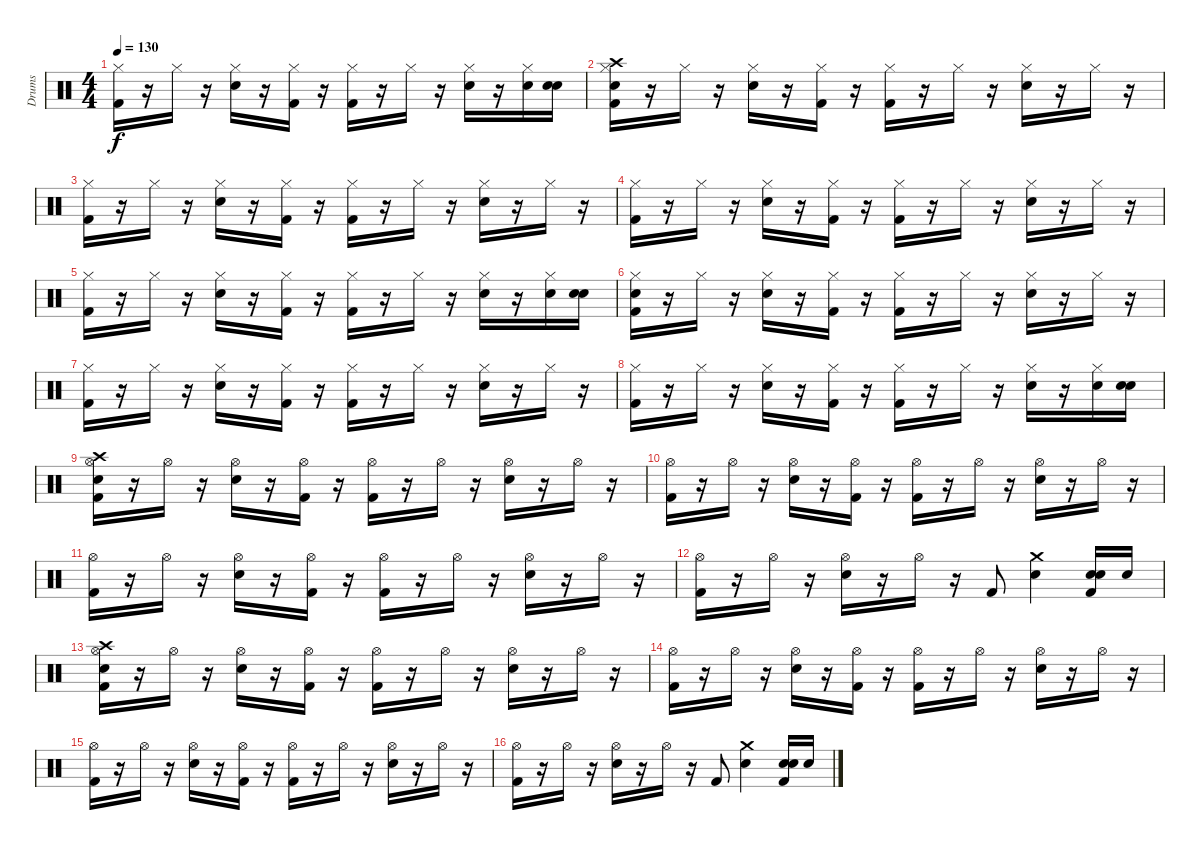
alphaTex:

\track ("Drums" "Drums") {instrument percussion}
\staff {score}
\articulation defaults
\ts (4 4)
\tempo 130
\clef neutral
\ks c
("Kick (hit) 2" "Hi-Hat (closed)").16{dy f} r.16 "Hi-Hat (closed)".16 r.16 ("Snare (hit) 2" "Hi-Hat (closed)").16 r.16 ("Kick (hit) 2" "Hi-Hat (closed)").16 r.16 ("Hi-Hat (closed)" "Kick (hit) 2").16 r.16 "Hi-Hat (closed)".16 r.16 ("Hi-Hat (closed)" "Snare (hit) 2").16 r.16 ("Snare (hit) 2" "Hi-Hat (closed)").16 ("Snare (hit)" "Snare (hit) 2").16 |
("Snare (hit)" "Crash high (hit)" "Kick (hit) 2" "Hi-Hat (closed)").16 r.16 "Hi-Hat (closed)".16 r.16 ("Hi-Hat (closed)" "Snare (hit) 2").16 r.16 ("Hi-Hat (closed)" "Kick (hit) 2").16 r.16 ("Hi-Hat (closed)" "Kick (hit) 2").16 r.16 "Hi-Hat (closed)".16 r.16 ("Hi-Hat (closed)" "Snare (hit) 2").16 r.16 "Hi-Hat (closed)".16 r.16 |
("Hi-Hat (closed)" "Kick (hit) 2").16 r.16 "Hi-Hat (closed)".16 r.16 ("Snare (hit) 2" "Hi-Hat (closed)").16 r.16 ("Hi-Hat (closed)" "Kick (hit) 2").16 r.16 ("Hi-Hat (closed)" "Kick (hit) 2").16 r.16 "Hi-Hat (closed)".16 r.16 ("Snare (hit) 2" "Hi-Hat (closed)").16 r.16 "Hi-Hat (closed)".16 r.16 |
("Hi-Hat (closed)" "Kick (hit) 2").16 r.16 "Hi-Hat (closed)".16 r.16 ("Hi-Hat (closed)" "Snare (hit) 2").16 r.16 ("Kick (hit) 2" "Hi-Hat (closed)").16 r.16 ("Kick (hit) 2" "Hi-Hat (closed)").16 r.16 "Hi-Hat (closed)".16 r.16 ("Snare (hit) 2" "Hi-Hat (closed)").16 r.16 "Hi-Hat (closed)".16 r.16 |
("Hi-Hat (closed)" "Kick (hit) 2").16 r.16 "Hi-Hat (closed)".16 r.16 ("Hi-Hat (closed)" "Snare (hit) 2").16 r.16 ("Hi-Hat (closed)" "Kick (hit) 2").16 r.16 ("Hi-Hat (closed)" "Kick (hit) 2").16 r.16 "Hi-Hat (closed)".16 r.16 ("Hi-Hat (closed)" "Snare (hit) 2").16 r.16 ("Hi-Hat (closed)" "Snare (hit) 2").16 ("Snare (hit)" "Snare (hit) 2").16 |
("Snare (hit)" "Hi-Hat (closed)" "Kick (hit) 2").16 r.16 "Hi-Hat (closed)".16 r.16 ("Hi-Hat (closed)" "Snare (hit) 2").16 r.16 ("Kick (hit) 2" "Hi-Hat (closed)").16 r.16 ("Hi-Hat (closed)" "Kick (hit) 2").16 r.16 "Hi-Hat (closed)".16 r.16 ("Hi-Hat (closed)" "Snare (hit) 2").16 r.16 "Hi-Hat (closed)".16 r.16 |
("Kick (hit) 2" "Hi-Hat (closed)").16 r.16 "Hi-Hat (closed)".16 r.16 ("Snare (hit) 2" "Hi-Hat (closed)").16 r.16 ("Hi-Hat (closed)" "Kick (hit) 2").16 r.16 ("Kick (hit) 2" "Hi-Hat (closed)").16 r.16 "Hi-Hat (closed)".16 r.16 ("Snare (hit) 2" "Hi-Hat (closed)").16 r.16 "Hi-Hat (closed)".16 r.16 |
("Kick (hit) 2" "Hi-Hat (closed)").16 r.16 "Hi-Hat (closed)".16 r.16 ("Hi-Hat (closed)" "Snare (hit) 2").16 r.16 ("Hi-Hat (closed)" "Kick (hit) 2").16 r.16 ("Kick (hit) 2" "Hi-Hat (closed)").16 r.16 "Hi-Hat (closed)".16 r.16 ("Hi-Hat (closed)" "Snare (hit) 2").16 r.16 ("Hi-Hat (closed)" "Snare (hit) 2").16 ("Snare (hit)" "Snare (hit) 2").16 |
("Snare (hit)" "Kick (hit) 2" "Crash high (hit)" "Hi-Hat (open)").16 r.16 "Hi-Hat (open)".16 r.16 ("Snare (hit) 2" "Hi-Hat (open)").16 r.16 ("Kick (hit) 2" "Hi-Hat (open)").16 r.16 ("Hi-Hat (open)" "Kick (hit) 2").16 r.16 "Hi-Hat (open)".16 r.16 ("Snare (hit) 2" "Hi-Hat (open)").16 r.16 "Hi-Hat (open)".16 r.16 |
("Kick (hit) 2" "Hi-Hat (open)").16 r.16 "Hi-Hat (open)".16 r.16 ("Hi-Hat (open)" "Snare (hit) 2").16 r.16 ("Hi-Hat (open)" "Kick (hit) 2").16 r.16 ("Kick (hit) 2" "Hi-Hat (open)").16 r.16 "Hi-Hat (open)".16 r.16 ("Hi-Hat (open)" "Snare (hit) 2").16 r.16 "Hi-Hat (open)".16 r.16 |
("Kick (hit) 2" "Hi-Hat (open)").16 r.16 "Hi-Hat (open)".16 r.16 ("Hi-Hat (open)" "Snare (hit) 2").16 r.16 ("Kick (hit) 2" "Hi-Hat (open)").16 r.16 ("Kick (hit) 2" "Hi-Hat (open)").16 r.16 "Hi-Hat (open)".16 r.16 ("Hi-Hat (open)" "Snare (hit) 2").16 r.16 "Hi-Hat (open)".16 r.16 |
("Kick (hit) 2" "Hi-Hat (open)").16 r.16 "Hi-Hat (open)".16 r.16 ("Snare (hit) 2" "Hi-Hat (open)").16 r.16 "Hi-Hat (open)".16 r.16 "Kick (hit) 2".8 ("Snare (hit) 2" "Crash medium (hit)").4 ("Snare (hit)" "Snare (hit) 2" "Kick (hit) 2").16 "Snare (hit) 2".16 |
("Snare (hit)" "Hi-Hat (open)" "Crash high (hit)" "Kick (hit) 2").16 r.16 "Hi-Hat (open)".16 r.16 ("Hi-Hat (open)" "Snare (hit) 2").16 r.16 ("Kick (hit) 2" "Hi-Hat (open)").16 r.16 ("Hi-Hat (open)" "Kick (hit) 2").16 r.16 "Hi-Hat (open)".16 r.16 ("Snare (hit) 2" "Hi-Hat (open)").16 r.16 "Hi-Hat (open)".16 r.16 |
("Kick (hit) 2" "Hi-Hat (open)").16 r.16 "Hi-Hat (open)".16 r.16 ("Hi-Hat (open)" "Snare (hit) 2").16 r.16 ("Kick (hit) 2" "Hi-Hat (open)").16 r.16 ("Kick (hit) 2" "Hi-Hat (open)").16 r.16 "Hi-Hat (open)".16 r.16 ("Snare (hit) 2" "Hi-Hat (open)").16 r.16 "Hi-Hat (open)".16 r.16 |
("Hi-Hat (open)" "Kick (hit) 2").16 r.16 "Hi-Hat (open)".16 r.16 ("Snare (hit) 2" "Hi-Hat (open)").16 r.16 ("Kick (hit) 2" "Hi-Hat (open)").16 r.16 ("Kick (hit) 2" "Hi-Hat (open)").16 r.16 "Hi-Hat (open)".16 r.16 ("Hi-Hat (open)" "Snare (hit) 2").16 r.16 "Hi-Hat (open)".16 r.16 |
("Kick (hit) 2" "Hi-Hat (open)").16 r.16 "Hi-Hat (open)".16 r.16 ("Snare (hit) 2" "Hi-Hat (open)").16 r.16 "Hi-Hat (open)".16 r.16 "Kick (hit) 2".8 ("Crash medium (hit)" "Snare (hit) 2").4 ("Snare (hit)" "Kick (hit) 2" "Snare (hit) 2").16 "Snare (hit) 2".16
